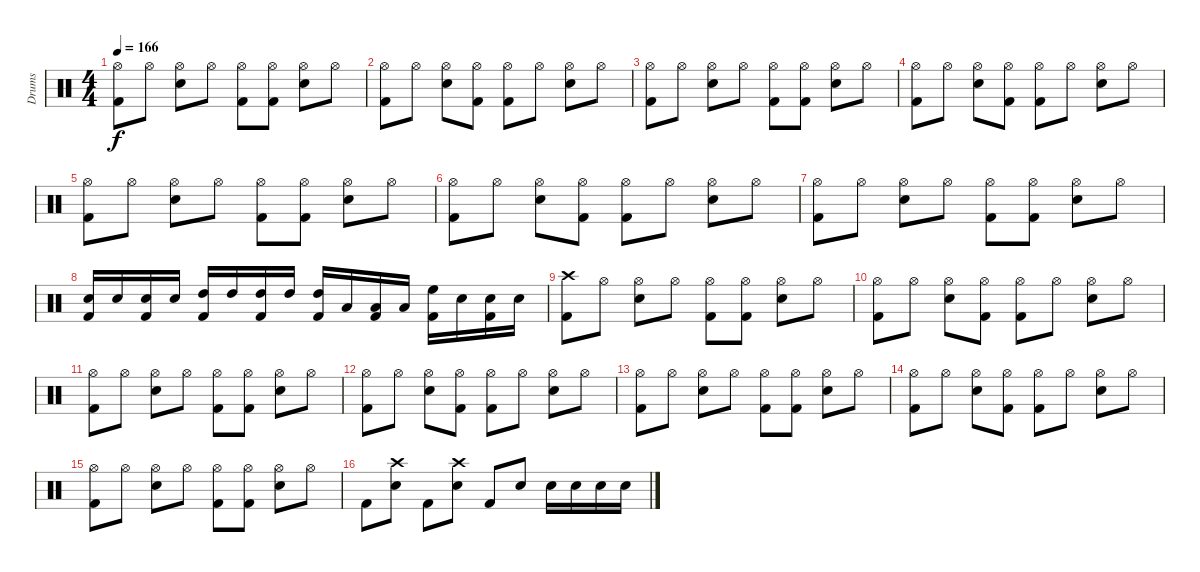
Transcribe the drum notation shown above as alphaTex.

\track ("Drums" "Drums") {instrument percussion}
\staff {score}
\articulation defaults
\ts (4 4)
\tempo 166
\clef neutral
\ks c
("Kick (hit) 2" "Hi-Hat (open)").8{dy f} "Hi-Hat (open)".8 ("Snare (hit) 2" "Hi-Hat (open)").8 "Hi-Hat (open)".8 ("Kick (hit) 2" "Hi-Hat (open)").8 ("Kick (hit) 2" "Hi-Hat (open)").8 ("Snare (hit) 2" "Hi-Hat (open)").8 "Hi-Hat (open)".8 |
("Kick (hit) 2" "Hi-Hat (open)").8 "Hi-Hat (open)".8 ("Snare (hit) 2" "Hi-Hat (open)").8 ("Kick (hit) 2" "Hi-Hat (open)").8 ("Kick (hit) 2" "Hi-Hat (open)").8 "Hi-Hat (open)".8 ("Snare (hit) 2" "Hi-Hat (open)").8 "Hi-Hat (open)".8 |
("Kick (hit) 2" "Hi-Hat (open)").8 "Hi-Hat (open)".8 ("Snare (hit) 2" "Hi-Hat (open)").8 "Hi-Hat (open)".8 ("Kick (hit) 2" "Hi-Hat (open)").8 ("Kick (hit) 2" "Hi-Hat (open)").8 ("Snare (hit) 2" "Hi-Hat (open)").8 "Hi-Hat (open)".8 |
("Kick (hit) 2" "Hi-Hat (open)").8 "Hi-Hat (open)".8 ("Snare (hit) 2" "Hi-Hat (open)").8 ("Kick (hit) 2" "Hi-Hat (open)").8 ("Kick (hit) 2" "Hi-Hat (open)").8 "Hi-Hat (open)".8 ("Snare (hit) 2" "Hi-Hat (open)").8 "Hi-Hat (open)".8 |
("Kick (hit) 2" "Hi-Hat (open)").8 "Hi-Hat (open)".8 ("Snare (hit) 2" "Hi-Hat (open)").8 "Hi-Hat (open)".8 ("Kick (hit) 2" "Hi-Hat (open)").8 ("Kick (hit) 2" "Hi-Hat (open)").8 ("Snare (hit) 2" "Hi-Hat (open)").8 "Hi-Hat (open)".8 |
("Kick (hit) 2" "Hi-Hat (open)").8 "Hi-Hat (open)".8 ("Snare (hit) 2" "Hi-Hat (open)").8 ("Kick (hit) 2" "Hi-Hat (open)").8 ("Kick (hit) 2" "Hi-Hat (open)").8 "Hi-Hat (open)".8 ("Snare (hit) 2" "Hi-Hat (open)").8 "Hi-Hat (open)".8 |
("Kick (hit) 2" "Hi-Hat (open)").8 "Hi-Hat (open)".8 ("Snare (hit) 2" "Hi-Hat (open)").8 "Hi-Hat (open)".8 ("Kick (hit) 2" "Hi-Hat (open)").8 ("Kick (hit) 2" "Hi-Hat (open)").8 ("Snare (hit) 2" "Hi-Hat (open)").8 "Hi-Hat (open)".8 |
("Snare (hit) 2" "Kick (hit) 2").16 "Snare (hit) 2".16 ("Snare (hit) 2" "Kick (hit) 2").16 "Snare (hit) 2".16 ("High Tom (hit)" "Kick (hit) 2").16 "High Tom (hit)".16 ("High Tom (hit)" "Kick (hit) 2").16 "High Tom (hit)".16 ("High Tom (hit)" "Kick (hit) 2").16 "Low Tom (hit)".16 ("Low Tom (hit)" "Kick (hit) 2").16 "Low Tom (hit)".16 ("High Floor Tom (hit)" "Kick (hit) 2").16 "Snare (hit) 2".16 ("Snare (hit) 2" "Kick (hit) 2").16 "Snare (hit) 2".16 |
("Kick (hit) 2" "Crash high (hit)").8 "Hi-Hat (open)".8 ("Snare (hit) 2" "Hi-Hat (open)").8 "Hi-Hat (open)".8 ("Kick (hit) 2" "Hi-Hat (open)").8 ("Kick (hit) 2" "Hi-Hat (open)").8 ("Snare (hit) 2" "Hi-Hat (open)").8 "Hi-Hat (open)".8 |
("Kick (hit) 2" "Hi-Hat (open)").8 "Hi-Hat (open)".8 ("Snare (hit) 2" "Hi-Hat (open)").8 ("Kick (hit) 2" "Hi-Hat (open)").8 ("Kick (hit) 2" "Hi-Hat (open)").8 "Hi-Hat (open)".8 ("Snare (hit) 2" "Hi-Hat (open)").8 "Hi-Hat (open)".8 |
("Kick (hit) 2" "Hi-Hat (open)").8 "Hi-Hat (open)".8 ("Snare (hit) 2" "Hi-Hat (open)").8 "Hi-Hat (open)".8 ("Kick (hit) 2" "Hi-Hat (open)").8 ("Kick (hit) 2" "Hi-Hat (open)").8 ("Snare (hit) 2" "Hi-Hat (open)").8 "Hi-Hat (open)".8 |
("Kick (hit) 2" "Hi-Hat (open)").8 "Hi-Hat (open)".8 ("Snare (hit) 2" "Hi-Hat (open)").8 ("Kick (hit) 2" "Hi-Hat (open)").8 ("Kick (hit) 2" "Hi-Hat (open)").8 "Hi-Hat (open)".8 ("Snare (hit) 2" "Hi-Hat (open)").8 "Hi-Hat (open)".8 |
("Kick (hit) 2" "Hi-Hat (open)").8 "Hi-Hat (open)".8 ("Snare (hit) 2" "Hi-Hat (open)").8 "Hi-Hat (open)".8 ("Kick (hit) 2" "Hi-Hat (open)").8 ("Kick (hit) 2" "Hi-Hat (open)").8 ("Snare (hit) 2" "Hi-Hat (open)").8 "Hi-Hat (open)".8 |
("Kick (hit) 2" "Hi-Hat (open)").8 "Hi-Hat (open)".8 ("Snare (hit) 2" "Hi-Hat (open)").8 ("Kick (hit) 2" "Hi-Hat (open)").8 ("Kick (hit) 2" "Hi-Hat (open)").8 "Hi-Hat (open)".8 ("Snare (hit) 2" "Hi-Hat (open)").8 "Hi-Hat (open)".8 |
("Kick (hit) 2" "Hi-Hat (open)").8 "Hi-Hat (open)".8 ("Snare (hit) 2" "Hi-Hat (open)").8 "Hi-Hat (open)".8 ("Kick (hit) 2" "Hi-Hat (open)").8 ("Kick (hit) 2" "Hi-Hat (open)").8 ("Snare (hit) 2" "Hi-Hat (open)").8 "Hi-Hat (open)".8 |
"Kick (hit) 2".8 ("Snare (hit) 2" "Crash high (hit)").8 "Kick (hit) 2".8 ("Snare (hit) 2" "Crash high (hit)").8 "Kick (hit) 2".8 "Snare (hit) 2".8 "Snare (hit) 2".16 "Snare (hit) 2".16 "Snare (hit) 2".16 "Snare (hit) 2".16
